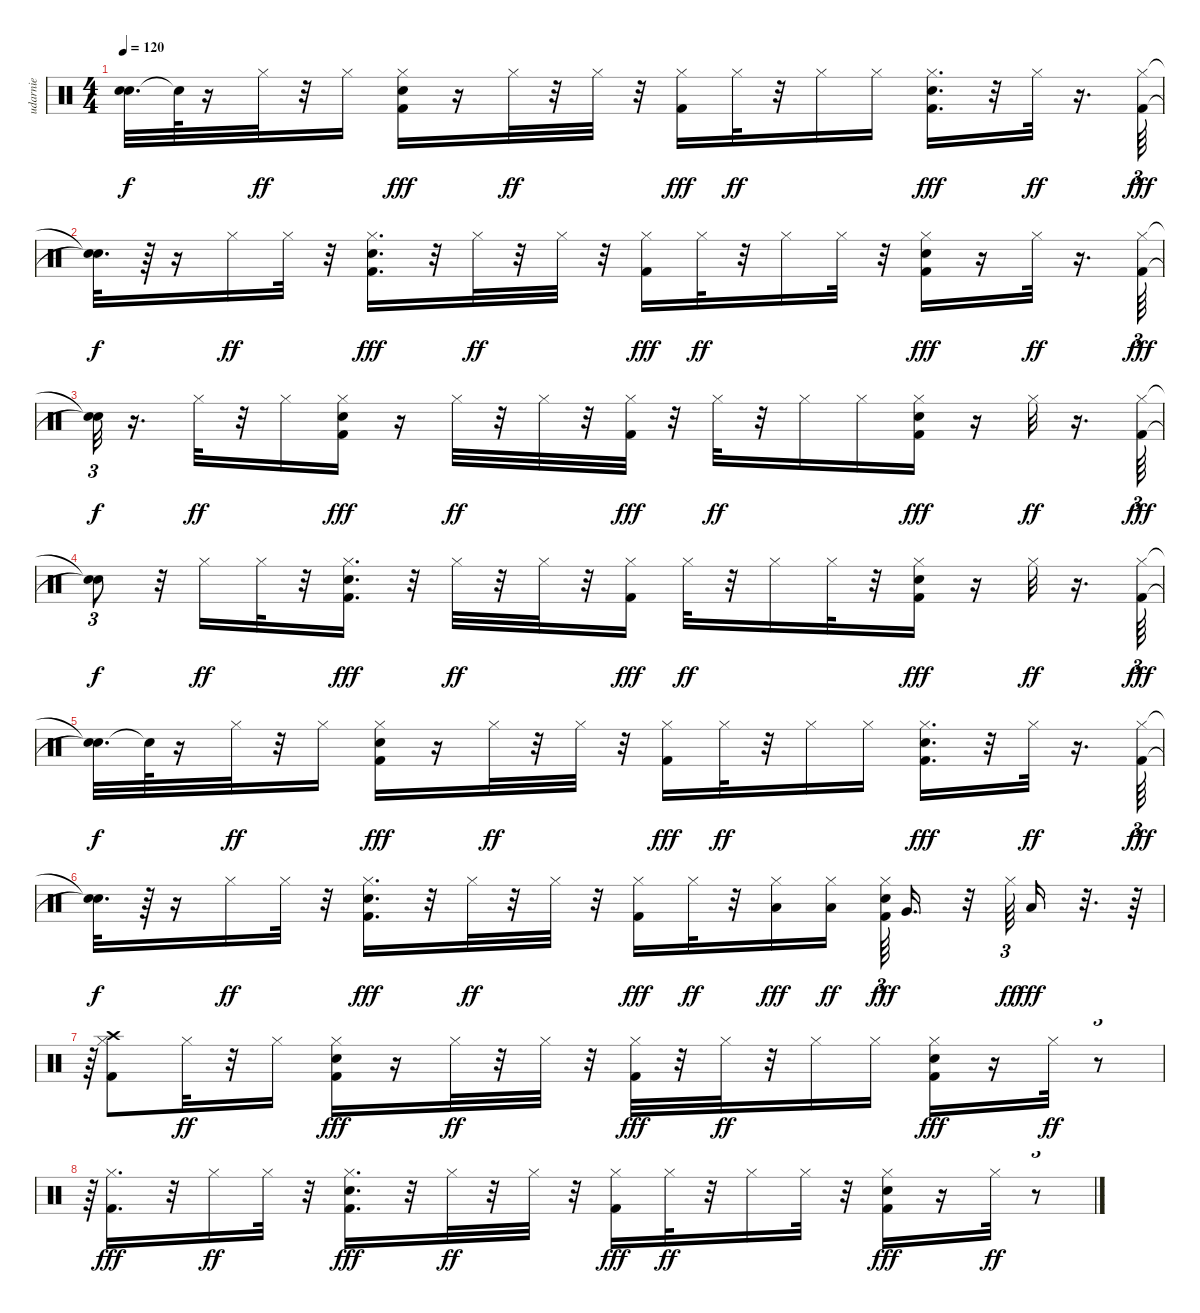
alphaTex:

\track ("udarnie" "udarnie") {instrument percussion}
\staff {score}
\articulation defaults
\ts (4 4)
\tempo 120
\clef neutral
\ks c
("Snare (hit)"{t} "Snare (hit)"{t}).32{d dy f} "Snare (hit)"{t}.64 r.16 "Hi-Hat (closed)".32{dy ff} r.32 "Hi-Hat (closed)".16 ("Hi-Hat (closed)" "Electric Snare (hit)" "Kick (hit) 2").16{dy fff} r.16 "Hi-Hat (closed)".32{dy ff} r.32 "Hi-Hat (closed)".32 r.32 ("Hi-Hat (closed)" "Kick (hit) 2").16{dy fff} "Hi-Hat (closed)".32{dy ff} r.32 "Hi-Hat (closed)".16 "Hi-Hat (closed)".16 ("Hi-Hat (closed)" "Electric Snare (hit)" "Kick (hit) 2").16{d dy fff} r.32 "Hi-Hat (closed)".32{dy ff} r.16{d} ("Hi-Hat (closed)" "Kick (hit) 2").64{tu (3 2) dy fff} |
("Snare (hit)"{t} "Snare (hit)"{t}).32{d dy f} r.64 r.16 "Hi-Hat (closed)".16{dy ff} "Hi-Hat (closed)".32 r.32 ("Hi-Hat (closed)" "Electric Snare (hit)" "Kick (hit) 2").16{d dy fff} r.32 "Hi-Hat (closed)".32{dy ff} r.32 "Hi-Hat (closed)".32 r.32 ("Hi-Hat (closed)" "Kick (hit) 2").16{dy fff} "Hi-Hat (closed)".32{dy ff} r.32 "Hi-Hat (closed)".16 "Hi-Hat (closed)".32 r.32 ("Hi-Hat (closed)" "Electric Snare (hit)" "Kick (hit) 2").16{dy fff} r.16 "Hi-Hat (closed)".32{dy ff} r.16{d} ("Hi-Hat (closed)" "Kick (hit) 2").64{tu (3 2) dy fff} |
("Snare (hit)"{t} "Snare (hit)"{t}).32{tu (3 2) dy f} r.16{d} "Hi-Hat (closed)".32{dy ff} r.32 "Hi-Hat (closed)".16 ("Hi-Hat (closed)" "Electric Snare (hit)" "Kick (hit) 2").16{dy fff} r.16 "Hi-Hat (closed)".32{dy ff} r.32 "Hi-Hat (closed)".32 r.32 ("Hi-Hat (closed)" "Kick (hit) 2").32{dy fff} r.32 "Hi-Hat (closed)".32{dy ff} r.32 "Hi-Hat (closed)".16 "Hi-Hat (closed)".16 ("Hi-Hat (closed)" "Electric Snare (hit)" "Kick (hit) 2").16{dy fff} r.16 "Hi-Hat (closed)".32{dy ff} r.16{d} ("Hi-Hat (closed)" "Kick (hit) 2").64{tu (3 2) dy fff} |
("Snare (hit)"{t} "Snare (hit)"{t}).8{tu (3 2) dy f} r.32 "Hi-Hat (closed)".16{dy ff} "Hi-Hat (closed)".32 r.32 ("Hi-Hat (closed)" "Electric Snare (hit)" "Kick (hit) 2").16{d dy fff} r.32 "Hi-Hat (closed)".32{dy ff} r.32 "Hi-Hat (closed)".32 r.32 ("Hi-Hat (closed)" "Kick (hit) 2").16{dy fff} "Hi-Hat (closed)".32{dy ff} r.32 "Hi-Hat (closed)".16 "Hi-Hat (closed)".32 r.32 ("Hi-Hat (closed)" "Electric Snare (hit)" "Kick (hit) 2").16{dy fff} r.16 "Hi-Hat (closed)".32{dy ff} r.16{d} ("Hi-Hat (closed)" "Kick (hit) 2").64{tu (3 2) dy fff} |
("Snare (hit)"{t} "Snare (hit)"{t}).32{d dy f} "Snare (hit)"{t}.64 r.16 "Hi-Hat (closed)".32{dy ff} r.32 "Hi-Hat (closed)".16 ("Hi-Hat (closed)" "Electric Snare (hit)" "Kick (hit) 2").16{dy fff} r.16 "Hi-Hat (closed)".32{dy ff} r.32 "Hi-Hat (closed)".32 r.32 ("Hi-Hat (closed)" "Kick (hit) 2").16{dy fff} "Hi-Hat (closed)".32{dy ff} r.32 "Hi-Hat (closed)".16 "Hi-Hat (closed)".16 ("Hi-Hat (closed)" "Electric Snare (hit)" "Kick (hit) 2").16{d dy fff} r.32 "Hi-Hat (closed)".32{dy ff} r.16{d} ("Hi-Hat (closed)" "Kick (hit) 2").64{tu (3 2) dy fff} |
("Snare (hit)"{t} "Snare (hit)"{t}).32{d dy f} r.64 r.16 "Hi-Hat (closed)".16{dy ff} "Hi-Hat (closed)".32 r.32 ("Hi-Hat (closed)" "Electric Snare (hit)" "Kick (hit) 2").16{d dy fff} r.32 "Hi-Hat (closed)".32{dy ff} r.32 "Hi-Hat (closed)".32 r.32 ("Hi-Hat (closed)" "Kick (hit) 2").16{dy fff} "Hi-Hat (closed)".32{dy ff} r.32 ("Hi-Hat (closed)" "Low Tom (hit)").16{dy fff} ("Low Tom (hit)" "Hi-Hat (closed)").16{dy ff} ("Hi-Hat (closed)" "Electric Snare (hit)" "Kick (hit) 2").64{tu (3 2) dy fff} "Very Low Tom (hit)".16{d} r.32 "Hi-Hat (closed)".64{tu (3 2) dy ff} "Low Floor Tom (hit)".16{dy fff} r.32{d} r.64 |
r.64{tu (3 2)} ("Crash high (hit)" "Hi-Hat (closed)" "Kick (hit) 2").8 "Hi-Hat (closed)".32{dy ff} r.32 "Hi-Hat (closed)".16 ("Hi-Hat (closed)" "Electric Snare (hit)" "Kick (hit) 2").16{dy fff} r.16 "Hi-Hat (closed)".32{dy ff} r.32 "Hi-Hat (closed)".32 r.32 ("Hi-Hat (closed)" "Kick (hit) 2").32{dy fff} r.32 "Hi-Hat (closed)".32{dy ff} r.32 "Hi-Hat (closed)".16 "Hi-Hat (closed)".16 ("Hi-Hat (closed)" "Electric Snare (hit)" "Kick (hit) 2").16{dy fff} r.16 "Hi-Hat (closed)".32{dy ff} r.8{tu (3 2)} |
r.64{tu (3 2)} ("Hi-Hat (closed)" "Kick (hit) 2").16{d dy fff} r.32 "Hi-Hat (closed)".16{dy ff} "Hi-Hat (closed)".32 r.32 ("Hi-Hat (closed)" "Electric Snare (hit)" "Kick (hit) 2").16{d dy fff} r.32 "Hi-Hat (closed)".32{dy ff} r.32 "Hi-Hat (closed)".32 r.32 ("Hi-Hat (closed)" "Kick (hit) 2").16{dy fff} "Hi-Hat (closed)".32{dy ff} r.32 "Hi-Hat (closed)".16 "Hi-Hat (closed)".32 r.32 ("Hi-Hat (closed)" "Electric Snare (hit)" "Kick (hit) 2").16{dy fff} r.16 "Hi-Hat (closed)".32{dy ff} r.8{tu (3 2)}
